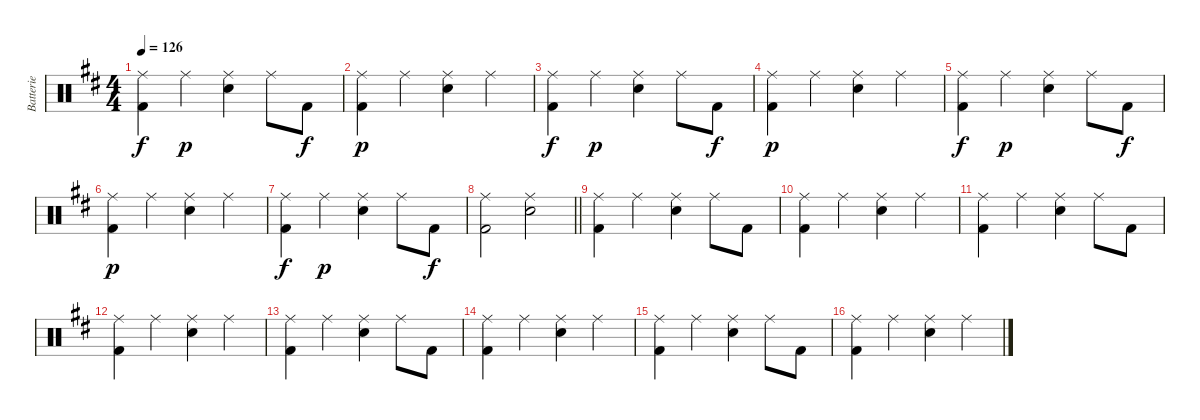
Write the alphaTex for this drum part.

\track ("Batterie" "Batterie") {instrument percussion}
\staff {score}
\articulation defaults
\ts (4 4)
\tempo 126
\clef neutral
\ks d
("Ride (middle)" "Kick (hit) 2").4{dy f} "Ride (middle)".4{dy p} ("Ride (middle)" "Snare (hit) 2").4 "Ride (middle)".8 "Kick (hit) 2".8{dy f} |
("Ride (middle)" "Kick (hit) 2").4{dy p} "Ride (middle)".4 ("Ride (middle)" "Snare (hit) 2").4 "Ride (middle)".4 |
("Ride (middle)" "Kick (hit) 2").4{dy f} "Ride (middle)".4{dy p} ("Ride (middle)" "Snare (hit) 2").4 "Ride (middle)".8 "Kick (hit) 2".8{dy f} |
("Ride (middle)" "Kick (hit) 2").4{dy p} "Ride (middle)".4 ("Ride (middle)" "Snare (hit) 2").4 "Ride (middle)".4 |
("Ride (middle)" "Kick (hit) 2").4{dy f} "Ride (middle)".4{dy p} ("Ride (middle)" "Snare (hit) 2").4 "Ride (middle)".8 "Kick (hit) 2".8{dy f} |
("Ride (middle)" "Kick (hit) 2").4{dy p} "Ride (middle)".4 ("Ride (middle)" "Snare (hit) 2").4 "Ride (middle)".4 |
("Ride (middle)" "Kick (hit) 2").4{dy f} "Ride (middle)".4{dy p} ("Ride (middle)" "Snare (hit) 2").4 "Ride (middle)".8 "Kick (hit) 2".8{dy f} |
\barLineRight lightlight
("Ride (middle)" "Kick (hit) 2").2 ("Ride (middle)" "Snare (hit) 2").2 |
("Ride (middle)" "Kick (hit) 2").4 "Ride (middle)".4 ("Ride (middle)" "Snare (hit) 2").4 "Ride (middle)".8 "Kick (hit) 2".8 |
("Ride (middle)" "Kick (hit) 2").4 "Ride (middle)".4 ("Ride (middle)" "Snare (hit) 2").4 "Ride (middle)".4 |
("Ride (middle)" "Kick (hit) 2").4 "Ride (middle)".4 ("Ride (middle)" "Snare (hit) 2").4 "Ride (middle)".8 "Kick (hit) 2".8 |
("Ride (middle)" "Kick (hit) 2").4 "Ride (middle)".4 ("Ride (middle)" "Snare (hit) 2").4 "Ride (middle)".4 |
("Ride (middle)" "Kick (hit) 2").4 "Ride (middle)".4 ("Ride (middle)" "Snare (hit) 2").4 "Ride (middle)".8 "Kick (hit) 2".8 |
("Ride (middle)" "Kick (hit) 2").4 "Ride (middle)".4 ("Ride (middle)" "Snare (hit) 2").4 "Ride (middle)".4 |
("Ride (middle)" "Kick (hit) 2").4 "Ride (middle)".4 ("Ride (middle)" "Snare (hit) 2").4 "Ride (middle)".8 "Kick (hit) 2".8 |
("Ride (middle)" "Kick (hit) 2").4 "Ride (middle)".4 ("Ride (middle)" "Snare (hit) 2").4 "Ride (middle)".4
